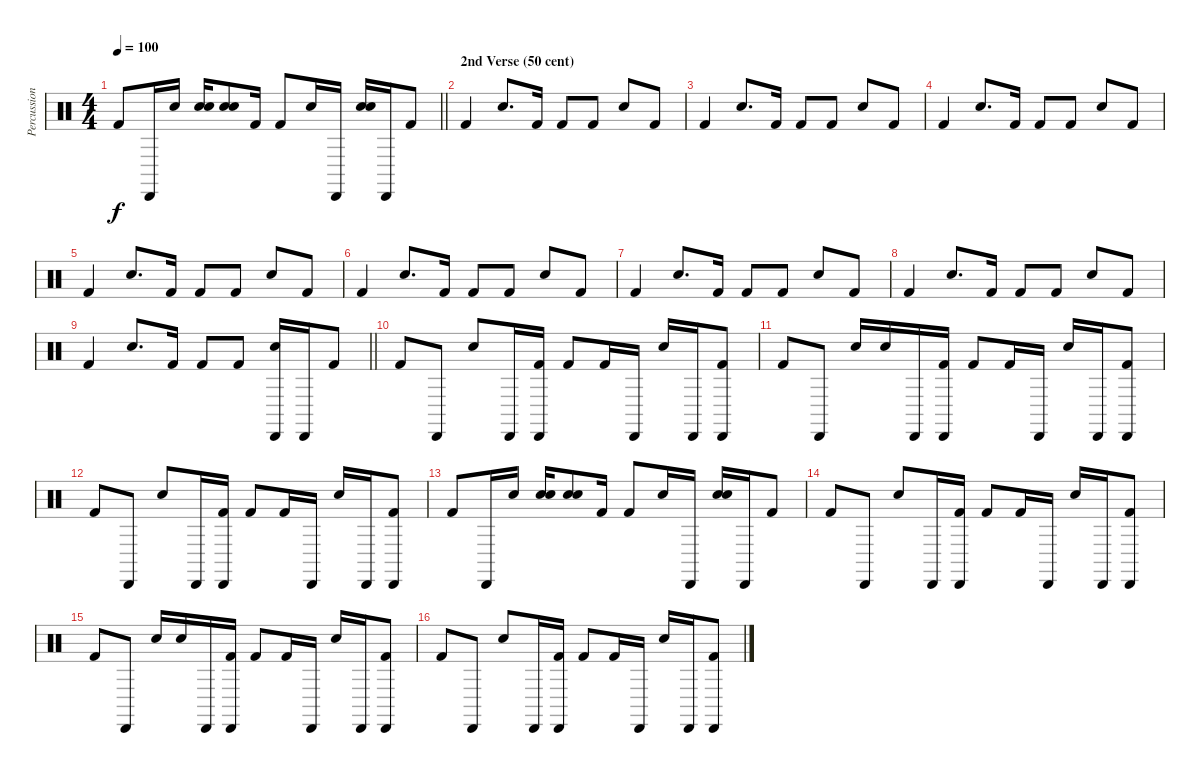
\track ("Percussion" "Percussion") {instrument percussion}
\staff {score}
\articulation defaults
\ts (4 4)
\tempo 100
\clef neutral
\barLineRight lightlight
\ks c "Kick (hit) 2".8{dy f} "Cabasa (hit)".16 "Snare (hit) 2".16
("Hand Clap (hit)" "Snare (hit) 2").16 ("Hand Clap (hit)" "Snare (hit) 2").8 "Kick (hit) 2".16 "Kick (hit) 2".8 "Snare (hit) 2".16 "Cabasa (hit)".16 ("Hand Clap (hit)" "Snare (hit) 2").16 "Cabasa (hit)".16 "Kick (hit) 2".8 |
\section ("" "2nd Verse (50 cent)")
"Kick (hit) 2".4 "Hand Clap (hit)".8{d} "Kick (hit) 2".16 "Kick (hit) 2".8 "Kick (hit) 2".8 "Hand Clap (hit)".8 "Kick (hit) 2".8 |
"Kick (hit) 2".4 "Hand Clap (hit)".8{d} "Kick (hit) 2".16 "Kick (hit) 2".8 "Kick (hit) 2".8 "Hand Clap (hit)".8 "Kick (hit) 2".8 |
"Kick (hit) 2".4 "Hand Clap (hit)".8{d} "Kick (hit) 2".16 "Kick (hit) 2".8 "Kick (hit) 2".8 "Hand Clap (hit)".8 "Kick (hit) 2".8 |
"Kick (hit) 2".4 "Hand Clap (hit)".8{d} "Kick (hit) 2".16 "Kick (hit) 2".8 "Kick (hit) 2".8 "Hand Clap (hit)".8 "Kick (hit) 2".8 |
"Kick (hit) 2".4 "Hand Clap (hit)".8{d} "Kick (hit) 2".16 "Kick (hit) 2".8 "Kick (hit) 2".8 "Hand Clap (hit)".8 "Kick (hit) 2".8 |
"Kick (hit) 2".4 "Hand Clap (hit)".8{d} "Kick (hit) 2".16 "Kick (hit) 2".8 "Kick (hit) 2".8 "Hand Clap (hit)".8 "Kick (hit) 2".8 |
"Kick (hit) 2".4 "Hand Clap (hit)".8{d} "Kick (hit) 2".16 "Kick (hit) 2".8 "Kick (hit) 2".8 "Hand Clap (hit)".8 "Kick (hit) 2".8 |
\barLineRight lightlight "Kick (hit) 2".4 "Hand Clap (hit)".8{d} "Kick (hit) 2".16 "Kick (hit) 2".8 "Kick (hit) 2".8
("Hand Clap (hit)" "Cabasa (hit)").16 "Cabasa (hit)".16 "Kick (hit) 2".8 |
"Kick (hit) 2".8 "Cabasa (hit)".8 "Hand Clap (hit)".8 "Cabasa (hit)".16 ("Cabasa (hit)" "Kick (hit) 2").16 "Kick (hit) 2".8 "Kick (hit) 2".16 "Cabasa (hit)".16 "Hand Clap (hit)".16 "Cabasa (hit)".16 ("Cabasa (hit)" "Kick (hit) 2").8 |
"Kick (hit) 2".8 "Cabasa (hit)".8 "Hand Clap (hit)".16 "Hand Clap (hit)".16 "Cabasa (hit)".16 ("Cabasa (hit)" "Kick (hit) 2").16 "Kick (hit) 2".8 "Kick (hit) 2".16 "Cabasa (hit)".16 "Hand Clap (hit)".16 "Cabasa (hit)".16 ("Cabasa (hit)" "Kick (hit) 2").8 |
"Kick (hit) 2".8 "Cabasa (hit)".8 "Hand Clap (hit)".8 "Cabasa (hit)".16 ("Cabasa (hit)" "Kick (hit) 2").16 "Kick (hit) 2".8 "Kick (hit) 2".16 "Cabasa (hit)".16 "Hand Clap (hit)".16 "Cabasa (hit)".16 ("Cabasa (hit)" "Kick (hit) 2").8 |
"Kick (hit) 2".8 "Cabasa (hit)".16 "Snare (hit) 2".16 ("Hand Clap (hit)" "Snare (hit) 2").16 ("Hand Clap (hit)" "Snare (hit) 2").8 "Kick (hit) 2".16 "Kick (hit) 2".8 "Snare (hit) 2".16 "Cabasa (hit)".16 ("Hand Clap (hit)" "Snare (hit) 2").16 "Cabasa (hit)".16 "Kick (hit) 2".8 |
"Kick (hit) 2".8 "Cabasa (hit)".8 "Hand Clap (hit)".8 "Cabasa (hit)".16 ("Cabasa (hit)" "Kick (hit) 2").16 "Kick (hit) 2".8 "Kick (hit) 2".16 "Cabasa (hit)".16 "Hand Clap (hit)".16 "Cabasa (hit)".16 ("Cabasa (hit)" "Kick (hit) 2").8 |
"Kick (hit) 2".8 "Cabasa (hit)".8 "Hand Clap (hit)".16 "Hand Clap (hit)".16 "Cabasa (hit)".16 ("Cabasa (hit)" "Kick (hit) 2").16 "Kick (hit) 2".8 "Kick (hit) 2".16 "Cabasa (hit)".16 "Hand Clap (hit)".16 "Cabasa (hit)".16 ("Cabasa (hit)" "Kick (hit) 2").8 |
"Kick (hit) 2".8 "Cabasa (hit)".8 "Hand Clap (hit)".8 "Cabasa (hit)".16 ("Cabasa (hit)" "Kick (hit) 2").16 "Kick (hit) 2".8 "Kick (hit) 2".16 "Cabasa (hit)".16 "Hand Clap (hit)".16 "Cabasa (hit)".16 ("Cabasa (hit)" "Kick (hit) 2").8
